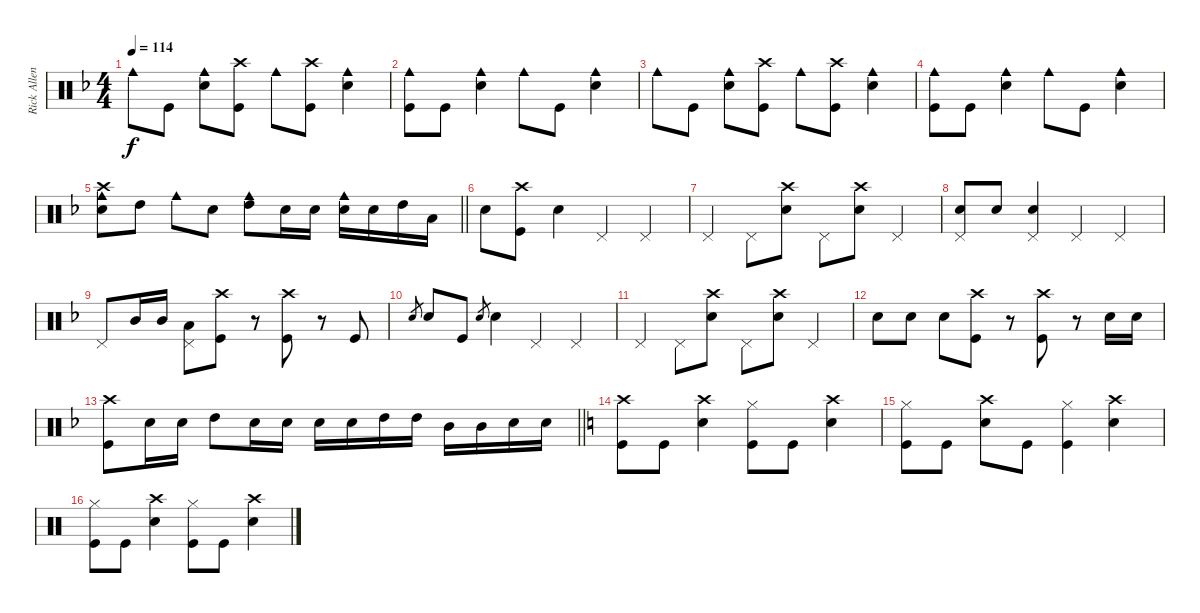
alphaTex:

\track ("Rick Allen" "Rick Allen") {instrument percussion}
\staff {score}
\articulation defaults
\ts (4 4)
\tempo 114
\clef neutral
\ks dminor "Cowbell medium (hit)".8{dy f} "Kick (hit)".8
("Cowbell medium (hit)" "Snare (hit) 2").8 ("Crash high (hit)" "Kick (hit)").8 "Cowbell medium (hit)".8 ("Crash high (hit)" "Kick (hit)").8 ("Cowbell medium (hit)" "Snare (hit) 2").4 |
("Cowbell medium (hit)" "Kick (hit)").8 "Kick (hit)".8 ("Cowbell medium (hit)" "Snare (hit) 2").4 "Cowbell medium (hit)".8 "Kick (hit)".8 ("Cowbell medium (hit)" "Snare (hit) 2").4 |
"Cowbell medium (hit)".8 "Kick (hit)".8 ("Cowbell medium (hit)" "Snare (hit) 2").8 ("Crash high (hit)" "Kick (hit)").8 "Cowbell medium (hit)".8 ("Crash high (hit)" "Kick (hit)").8 ("Cowbell medium (hit)" "Snare (hit) 2").4 |
("Cowbell medium (hit)" "Kick (hit)").8 "Kick (hit)".8 ("Cowbell medium (hit)" "Snare (hit) 2").4 "Cowbell medium (hit)".8 "Kick (hit)".8 ("Cowbell medium (hit)" "Snare (hit) 2").4 |
\barLineRight lightlight
("Cowbell medium (hit)" "Crash high (hit)" "Snare (hit) 2").8 "High Tom (hit)".8 "Cowbell medium (hit)".8 "Snare (hit) 2".8 ("Cowbell medium (hit)" "High Tom (hit)").8 "Snare (hit) 2".16 "Snare (hit) 2".16 ("Cowbell medium (hit)" "Snare (hit) 2").16 "Snare (hit) 2".16 "High Tom (hit)".16 "Low Tom (hit)".16 |
"Snare (hit) 2".8 ("Crash high (hit)" "Kick (hit)").8 "Snare (hit) 2".4 "Pedal Hi-Hat (hit)".4 "Pedal Hi-Hat (hit)".4 |
"Pedal Hi-Hat (hit)".4 "Pedal Hi-Hat (hit)".8 ("Crash high (hit)" "Snare (hit) 2").8 "Pedal Hi-Hat (hit)".8 ("Crash high (hit)" "Snare (hit) 2").8 "Pedal Hi-Hat (hit)".4 |
("Snare (hit) 2" "Pedal Hi-Hat (hit)").8 "Snare (hit) 2".8 ("Snare (hit) 2" "Pedal Hi-Hat (hit)").4 "Pedal Hi-Hat (hit)".4 "Pedal Hi-Hat (hit)".4 |
"Pedal Hi-Hat (hit)".8 "Mid Tom (hit)".16 "Mid Tom (hit)".16 ("Low Tom (hit)" "Pedal Hi-Hat (hit)").8 ("Crash high (hit)" "Kick (hit)").8 r.8 ("Crash high (hit)" "Kick (hit)").8 r.8 "Kick (hit)".8 |
"Snare (hit) 2".8{gr} "Snare (hit) 2".8 "Kick (hit)".8 "Snare (hit) 2".8{gr} "Snare (hit) 2".4 "Pedal Hi-Hat (hit)".4 "Pedal Hi-Hat (hit)".4 |
"Pedal Hi-Hat (hit)".4 "Pedal Hi-Hat (hit)".8 ("Crash high (hit)" "Snare (hit) 2").8 "Pedal Hi-Hat (hit)".8 ("Crash high (hit)" "Snare (hit) 2").8 "Pedal Hi-Hat (hit)".4 |
"Snare (hit) 2".8 "Snare (hit) 2".8 "Snare (hit) 2".8 ("Crash high (hit)" "Kick (hit)").8 r.8 ("Crash high (hit)" "Kick (hit)").8 r.8 "Snare (hit) 2".16 "Snare (hit) 2".16 |
\barLineRight lightlight
("Crash high (hit)" "Kick (hit)").8 "Snare (hit) 2".16 "Snare (hit) 2".16 "High Tom (hit)".8 "Snare (hit) 2".16 "Snare (hit) 2".16 "Snare (hit) 2".16 "Snare (hit) 2".16 "High Tom (hit)".16 "High Tom (hit)".16 "Mid Tom (hit)".16 "Mid Tom (hit)".16 "Snare (hit) 2".16 "Snare (hit) 2".16 |
\ks aminor
("Crash high (hit)" "Kick (hit)").8 "Kick (hit)".8 ("Crash high (hit)" "Snare (hit) 2").4 ("Hi-Hat (closed)" "Kick (hit)").8 "Kick (hit)".8 ("Crash high (hit)" "Snare (hit) 2").4 |
("Hi-Hat (closed)" "Kick (hit)").8 "Kick (hit)".8 ("Crash high (hit)" "Snare (hit) 2").8 "Kick (hit)".8 ("Hi-Hat (closed)" "Kick (hit)").4 ("Crash high (hit)" "Snare (hit) 2").4 |
("Hi-Hat (closed)" "Kick (hit)").8 "Kick (hit)".8 ("Crash high (hit)" "Snare (hit) 2").4 ("Hi-Hat (closed)" "Kick (hit)").8 "Kick (hit)".8 ("Crash high (hit)" "Snare (hit) 2").4
